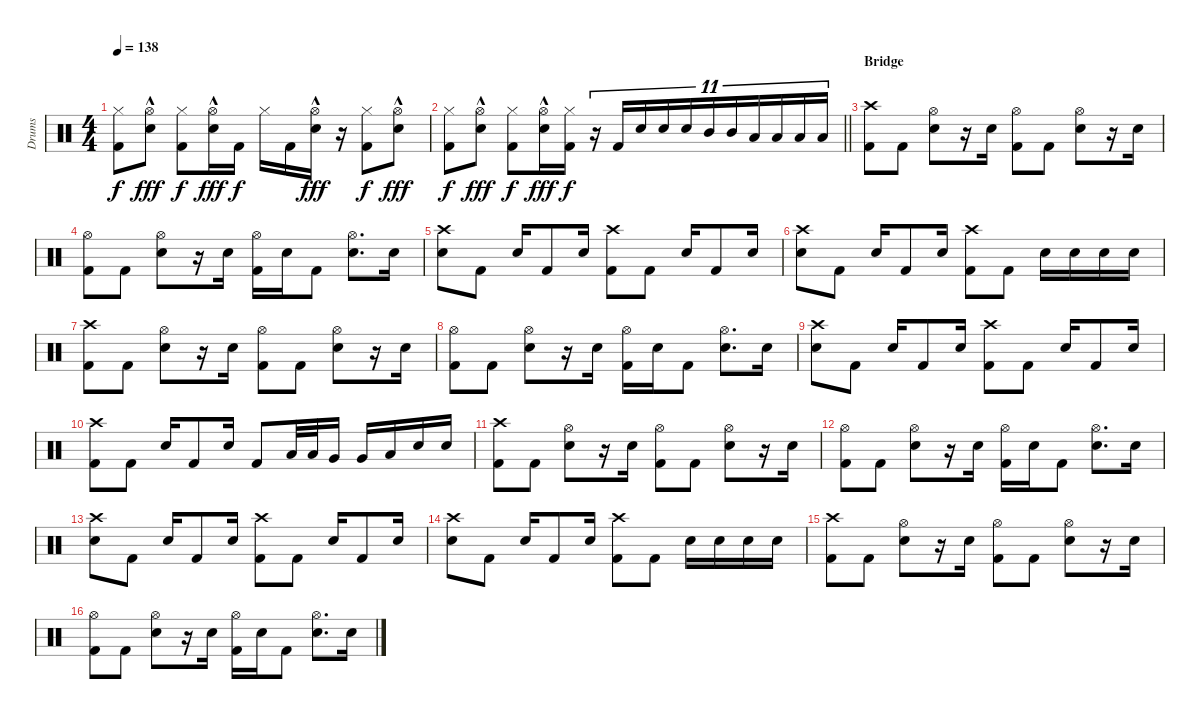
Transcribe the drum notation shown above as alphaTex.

\track ("Drums" "Drums") {instrument percussion}
\staff {score}
\articulation defaults
\ts (4 4)
\tempo 138
\clef neutral
\ks c
("Hi-Hat (closed)" "Kick (hit) 2").8{dy f} ("Hi-Hat (open)"{hac} "Electric Snare (hit)").8{dy fff} ("Hi-Hat (closed)" "Kick (hit) 2").8{dy f} ("Hi-Hat (open)"{hac} "Electric Snare (hit)").16{dy fff} "Kick (hit) 2".16{dy f} "Hi-Hat (closed)".16 "Kick (hit) 2".16 ("Hi-Hat (open)"{hac} "Electric Snare (hit)").16{dy fff} r.16 ("Hi-Hat (closed)" "Kick (hit) 2").8{dy f} ("Hi-Hat (open)"{hac} "Electric Snare (hit)").8{dy fff} |
\barLineRight lightlight
("Hi-Hat (closed)" "Kick (hit) 2").8{dy f} ("Hi-Hat (open)"{hac} "Electric Snare (hit)").8{dy fff} ("Hi-Hat (closed)" "Kick (hit) 2").8{dy f} ("Hi-Hat (open)"{hac} "Electric Snare (hit)").16{dy fff} ("Hi-Hat (closed)" "Kick (hit) 2").16{dy f} r.16{tu (11 8)} "Kick (hit) 2".16{tu (11 8)} "Electric Snare (hit)".16{tu (11 8)} "Electric Snare (hit)".16{tu (11 8)} "Electric Snare (hit)".16{tu (11 8)} "Mid Tom (hit)".16{tu (11 8)} "Mid Tom (hit)".16{tu (11 8)} "Low Tom (hit)".16{tu (11 8)} "Low Tom (hit)".16{tu (11 8)} "Low Floor Tom (hit)".16{tu (11 8)} "Low Floor Tom (hit)".16{tu (11 8)} |
\section ("" "Bridge")
("Crash high (hit)" "Kick (hit) 2").8 "Kick (hit) 2".8 ("Hi-Hat (open)" "Electric Snare (hit)").8 r.16 "Electric Snare (hit)".16 ("Hi-Hat (open)" "Kick (hit) 2").8 "Kick (hit) 2".8 ("Hi-Hat (open)" "Electric Snare (hit)").8 r.16 "Electric Snare (hit)".16 |
("Hi-Hat (open)" "Kick (hit) 2").8 "Kick (hit) 2".8 ("Hi-Hat (open)" "Electric Snare (hit)").8 r.16 "Electric Snare (hit)".16 ("Hi-Hat (open)" "Kick (hit) 2").16 "Electric Snare (hit)".16 "Kick (hit) 2".8 ("Hi-Hat (open)" "Electric Snare (hit)").8{d} "Electric Snare (hit)".16 |
("Crash high (hit)" "Electric Snare (hit)").8 "Kick (hit) 2".8 "Electric Snare (hit)".16 "Kick (hit) 2".8 "Electric Snare (hit)".16 ("Crash high (hit)" "Kick (hit) 2").8 "Kick (hit) 2".8 "Electric Snare (hit)".16 "Kick (hit) 2".8 "Electric Snare (hit)".16 |
("Crash high (hit)" "Electric Snare (hit)").8 "Kick (hit) 2".8 "Electric Snare (hit)".16 "Kick (hit) 2".8 "Electric Snare (hit)".16 ("Crash high (hit)" "Kick (hit) 2").8 "Kick (hit) 2".8 "Electric Snare (hit)".16 "Electric Snare (hit)".16 "Electric Snare (hit)".16 "Electric Snare (hit)".16 |
("Crash high (hit)" "Kick (hit) 2").8 "Kick (hit) 2".8 ("Hi-Hat (open)" "Electric Snare (hit)").8 r.16 "Electric Snare (hit)".16 ("Hi-Hat (open)" "Kick (hit) 2").8 "Kick (hit) 2".8 ("Hi-Hat (open)" "Electric Snare (hit)").8 r.16 "Electric Snare (hit)".16 |
("Hi-Hat (open)" "Kick (hit) 2").8 "Kick (hit) 2".8 ("Hi-Hat (open)" "Electric Snare (hit)").8 r.16 "Electric Snare (hit)".16 ("Hi-Hat (open)" "Kick (hit) 2").16 "Electric Snare (hit)".16 "Kick (hit) 2".8 ("Hi-Hat (open)" "Electric Snare (hit)").8{d} "Electric Snare (hit)".16 |
("Crash high (hit)" "Electric Snare (hit)").8 "Kick (hit) 2".8 "Electric Snare (hit)".16 "Kick (hit) 2".8 "Electric Snare (hit)".16 ("Crash high (hit)" "Kick (hit) 2").8 "Kick (hit) 2".8 "Electric Snare (hit)".16 "Kick (hit) 2".8 "Electric Snare (hit)".16 |
("Crash high (hit)" "Kick (hit) 2").8 "Kick (hit) 2".8 "Electric Snare (hit)".16 "Kick (hit) 2".8 "Electric Snare (hit)".16 "Kick (hit) 2".8 "Low Tom (hit)".32 "Low Tom (hit)".32 "Very Low Tom (hit)".16 "Very Low Tom (hit)".16 "Low Floor Tom (hit)".16 "Electric Snare (hit)".16 "Electric Snare (hit)".16 |
("Crash high (hit)" "Kick (hit) 2").8 "Kick (hit) 2".8 ("Hi-Hat (open)" "Electric Snare (hit)").8 r.16 "Electric Snare (hit)".16 ("Hi-Hat (open)" "Kick (hit) 2").8 "Kick (hit) 2".8 ("Hi-Hat (open)" "Electric Snare (hit)").8 r.16 "Electric Snare (hit)".16 |
("Hi-Hat (open)" "Kick (hit) 2").8 "Kick (hit) 2".8 ("Hi-Hat (open)" "Electric Snare (hit)").8 r.16 "Electric Snare (hit)".16 ("Hi-Hat (open)" "Kick (hit) 2").16 "Electric Snare (hit)".16 "Kick (hit) 2".8 ("Hi-Hat (open)" "Electric Snare (hit)").8{d} "Electric Snare (hit)".16 |
("Crash high (hit)" "Electric Snare (hit)").8 "Kick (hit) 2".8 "Electric Snare (hit)".16 "Kick (hit) 2".8 "Electric Snare (hit)".16 ("Crash high (hit)" "Kick (hit) 2").8 "Kick (hit) 2".8 "Electric Snare (hit)".16 "Kick (hit) 2".8 "Electric Snare (hit)".16 |
("Crash high (hit)" "Electric Snare (hit)").8 "Kick (hit) 2".8 "Electric Snare (hit)".16 "Kick (hit) 2".8 "Electric Snare (hit)".16 ("Crash high (hit)" "Kick (hit) 2").8 "Kick (hit) 2".8 "Electric Snare (hit)".16 "Electric Snare (hit)".16 "Electric Snare (hit)".16 "Electric Snare (hit)".16 |
("Crash high (hit)" "Kick (hit) 2").8 "Kick (hit) 2".8 ("Hi-Hat (open)" "Electric Snare (hit)").8 r.16 "Electric Snare (hit)".16 ("Hi-Hat (open)" "Kick (hit) 2").8 "Kick (hit) 2".8 ("Hi-Hat (open)" "Electric Snare (hit)").8 r.16 "Electric Snare (hit)".16 |
("Hi-Hat (open)" "Kick (hit) 2").8 "Kick (hit) 2".8 ("Hi-Hat (open)" "Electric Snare (hit)").8 r.16 "Electric Snare (hit)".16 ("Hi-Hat (open)" "Kick (hit) 2").16 "Electric Snare (hit)".16 "Kick (hit) 2".8 ("Hi-Hat (open)" "Electric Snare (hit)").8{d} "Electric Snare (hit)".16
